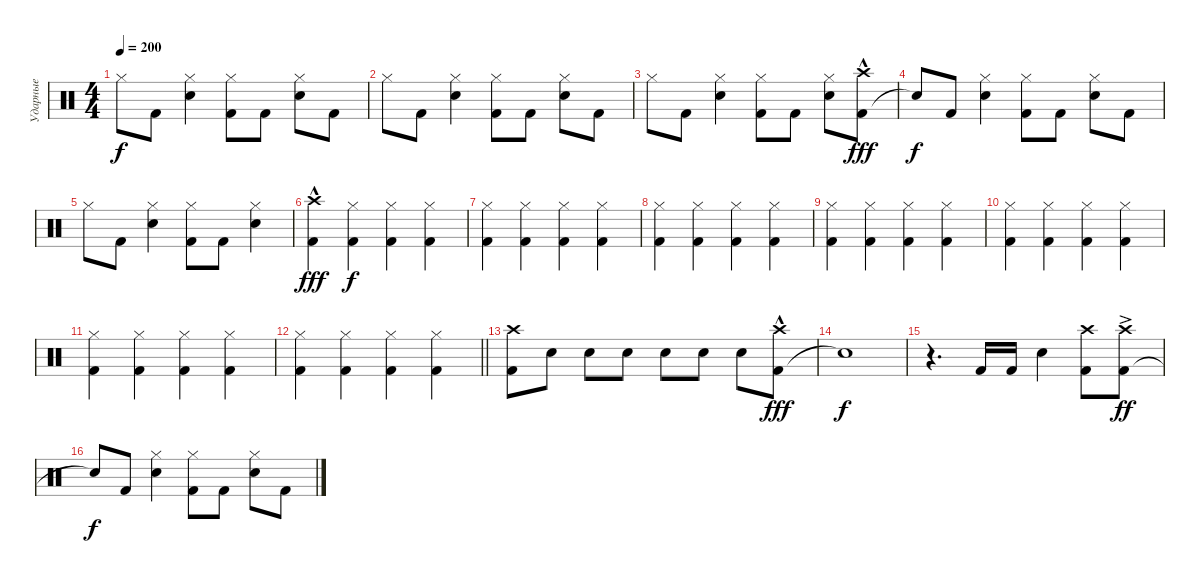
\track ("Ударные" "Ударные") {instrument percussion}
\staff {score}
\articulation defaults
\ts (4 4)
\tempo 200
\clef neutral
\ks c "Hi-Hat (closed)".8{dy f} "Kick (hit) 2".8
("Snare (hit) 2" "Hi-Hat (closed)").4 ("Kick (hit) 2" "Hi-Hat (closed)").8 "Kick (hit) 2".8 ("Snare (hit) 2" "Hi-Hat (closed)").8 "Kick (hit) 2".8 |
"Hi-Hat (closed)".8 "Kick (hit) 2".8 ("Snare (hit) 2" "Hi-Hat (closed)").4 ("Kick (hit) 2" "Hi-Hat (closed)").8 "Kick (hit) 2".8 ("Snare (hit) 2" "Hi-Hat (closed)").8 "Kick (hit) 2".8 |
"Hi-Hat (closed)".8 "Kick (hit) 2".8 ("Snare (hit) 2" "Hi-Hat (closed)").4 ("Kick (hit) 2" "Hi-Hat (closed)").8 "Kick (hit) 2".8 ("Snare (hit) 2" "Hi-Hat (closed)").8 ("Kick (hit) 2" "Crash high (hit)"{hac}).8{dy fff} |
"Snare (hit)"{t}.8{dy f} "Kick (hit) 2".8 ("Snare (hit) 2" "Hi-Hat (closed)").4 ("Kick (hit) 2" "Hi-Hat (closed)").8 "Kick (hit) 2".8 ("Snare (hit) 2" "Hi-Hat (closed)").8 "Kick (hit) 2".8 |
"Hi-Hat (closed)".8 "Kick (hit) 2".8 ("Snare (hit) 2" "Hi-Hat (closed)").4 ("Kick (hit) 2" "Hi-Hat (closed)").8 "Kick (hit) 2".8 ("Snare (hit) 2" "Hi-Hat (closed)").4 |
("Kick (hit) 2" "Crash high (hit)"{hac}).4{dy fff} ("Kick (hit) 2" "Hi-Hat (closed)").4{dy f} ("Kick (hit) 2" "Hi-Hat (closed)").4 ("Kick (hit) 2" "Hi-Hat (closed)").4 |
("Kick (hit) 2" "Hi-Hat (closed)").4 ("Kick (hit) 2" "Hi-Hat (closed)").4 ("Kick (hit) 2" "Hi-Hat (closed)").4 ("Kick (hit) 2" "Hi-Hat (closed)").4 |
("Kick (hit) 2" "Hi-Hat (closed)").4 ("Kick (hit) 2" "Hi-Hat (closed)").4 ("Kick (hit) 2" "Hi-Hat (closed)").4 ("Kick (hit) 2" "Hi-Hat (closed)").4 |
("Kick (hit) 2" "Hi-Hat (closed)").4 ("Kick (hit) 2" "Hi-Hat (closed)").4 ("Kick (hit) 2" "Hi-Hat (closed)").4 ("Kick (hit) 2" "Hi-Hat (closed)").4 |
("Kick (hit) 2" "Hi-Hat (closed)").4 ("Kick (hit) 2" "Hi-Hat (closed)").4 ("Kick (hit) 2" "Hi-Hat (closed)").4 ("Kick (hit) 2" "Hi-Hat (closed)").4 |
("Kick (hit) 2" "Hi-Hat (closed)").4 ("Kick (hit) 2" "Hi-Hat (closed)").4 ("Kick (hit) 2" "Hi-Hat (closed)").4 ("Kick (hit) 2" "Hi-Hat (closed)").4 |
\barLineRight lightlight
("Kick (hit) 2" "Hi-Hat (closed)").4 ("Kick (hit) 2" "Hi-Hat (closed)").4 ("Kick (hit) 2" "Hi-Hat (closed)").4 ("Kick (hit) 2" "Hi-Hat (closed)").4 |
("Kick (hit) 2" "Crash high (hit)").8 "Snare (hit) 2".8 "Snare (hit) 2".8 "Snare (hit) 2".8 "Snare (hit) 2".8 "Snare (hit) 2".8 "Snare (hit) 2".8 ("Kick (hit) 2" "Crash high (hit)"{hac}).8{dy fff} |
"Snare (hit)"{t}.1{dy f} |
r.4{d} "Kick (hit) 2".16 "Kick (hit) 2".16 "Snare (hit) 2".4 ("Kick (hit) 2" "Crash high (hit)").8 ("Kick (hit) 2" "Crash high (hit)"{ac}).8{dy ff} |
"Snare (hit)"{t}.8{dy f} "Kick (hit) 2".8 ("Snare (hit) 2" "Hi-Hat (closed)").4 ("Kick (hit) 2" "Hi-Hat (closed)").8 "Kick (hit) 2".8 ("Snare (hit) 2" "Hi-Hat (closed)").8 "Kick (hit) 2".8
